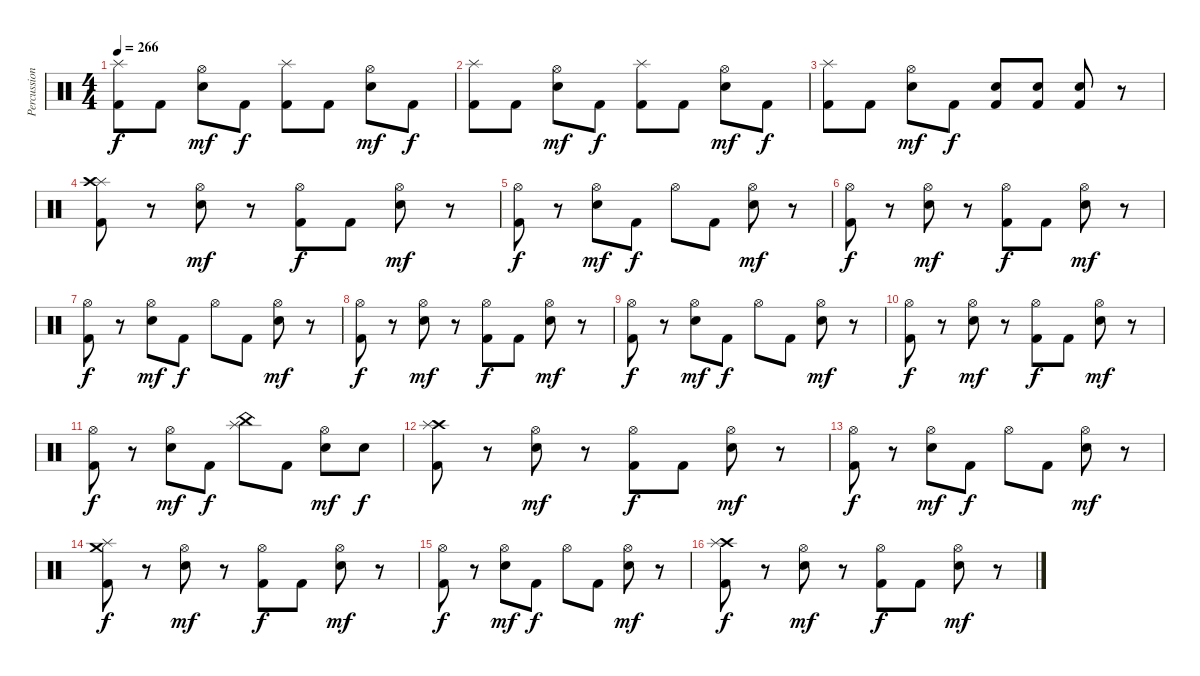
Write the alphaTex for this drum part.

\track ("Percussion" "Percussion") {instrument percussion}
\staff {score}
\articulation defaults
\ts (4 4)
\tempo 266
\clef neutral
\ks c
("Splash (hit)" "Kick (hit) 2").8{dy f} "Kick (hit) 2".8 ("Hi-Hat (open)" "Snare (hit) 2").8{dy mf} "Kick (hit) 2".8{dy f} ("Kick (hit) 2" "Splash (hit)").8 "Kick (hit) 2".8 ("Hi-Hat (open)" "Snare (hit) 2").8{dy mf} "Kick (hit) 2".8{dy f} |
("Splash (hit)" "Kick (hit) 2").8 "Kick (hit) 2".8 ("Hi-Hat (open)" "Snare (hit) 2").8{dy mf} "Kick (hit) 2".8{dy f} ("Kick (hit) 2" "Splash (hit)").8 "Kick (hit) 2".8 ("Hi-Hat (open)" "Snare (hit) 2").8{dy mf} "Kick (hit) 2".8{dy f} |
("Splash (hit)" "Kick (hit) 2").8 "Kick (hit) 2".8 ("Hi-Hat (open)" "Snare (hit) 2").8{dy mf} "Kick (hit) 2".8{dy f} ("Snare (hit) 2" "Kick (hit) 2").8 ("Snare (hit) 2" "Kick (hit) 2").8 ("Kick (hit) 2" "Snare (hit) 2").8 r.8 |
("Splash (hit)" "Crash high (hit)" "Kick (hit) 2").8 r.8 ("Snare (hit) 2" "Hi-Hat (open)").8{dy mf} r.8 ("Hi-Hat (open)" "Kick (hit) 2").8{dy f} "Kick (hit) 2".8 ("Hi-Hat (open)" "Snare (hit) 2").8{dy mf} r.8 |
("Kick (hit) 2" "Hi-Hat (open)").8{dy f} r.8 ("Snare (hit) 2" "Hi-Hat (open)").8{dy mf} "Kick (hit) 2".8{dy f} "Hi-Hat (open)".8 "Kick (hit) 2".8 ("Snare (hit) 2" "Hi-Hat (open)").8{dy mf} r.8 |
("Hi-Hat (open)" "Kick (hit) 2").8{dy f} r.8 ("Snare (hit) 2" "Hi-Hat (open)").8{dy mf} r.8 ("Hi-Hat (open)" "Kick (hit) 2").8{dy f} "Kick (hit) 2".8 ("Hi-Hat (open)" "Snare (hit) 2").8{dy mf} r.8 |
("Kick (hit) 2" "Hi-Hat (open)").8{dy f} r.8 ("Snare (hit) 2" "Hi-Hat (open)").8{dy mf} "Kick (hit) 2".8{dy f} "Hi-Hat (open)".8 "Kick (hit) 2".8 ("Snare (hit) 2" "Hi-Hat (open)").8{dy mf} r.8 |
("Hi-Hat (open)" "Kick (hit) 2").8{dy f} r.8 ("Snare (hit) 2" "Hi-Hat (open)").8{dy mf} r.8 ("Hi-Hat (open)" "Kick (hit) 2").8{dy f} "Kick (hit) 2".8 ("Hi-Hat (open)" "Snare (hit) 2").8{dy mf} r.8 |
("Kick (hit) 2" "Hi-Hat (open)").8{dy f} r.8 ("Snare (hit) 2" "Hi-Hat (open)").8{dy mf} "Kick (hit) 2".8{dy f} "Hi-Hat (open)".8 "Kick (hit) 2".8 ("Snare (hit) 2" "Hi-Hat (open)").8{dy mf} r.8 |
("Hi-Hat (open)" "Kick (hit) 2").8{dy f} r.8 ("Snare (hit) 2" "Hi-Hat (open)").8{dy mf} r.8 ("Hi-Hat (open)" "Kick (hit) 2").8{dy f} "Kick (hit) 2".8 ("Hi-Hat (open)" "Snare (hit) 2").8{dy mf} r.8 |
("Kick (hit) 2" "Hi-Hat (open)").8{dy f} r.8 ("Snare (hit) 2" "Hi-Hat (open)").8{dy mf} "Kick (hit) 2".8{dy f} ("Splash (hit)" "China (hit)").8 "Kick (hit) 2".8 ("Snare (hit) 2" "Hi-Hat (open)").8{dy mf} "Snare (hit) 2".8{dy f} |
("Crash high (hit)" "Splash (hit)" "Kick (hit) 2").8 r.8 ("Snare (hit) 2" "Hi-Hat (open)").8{dy mf} r.8 ("Kick (hit) 2" "Hi-Hat (open)").8{dy f} "Kick (hit) 2".8 ("Snare (hit) 2" "Hi-Hat (open)").8{dy mf} r.8 |
("Kick (hit) 2" "Hi-Hat (open)").8{dy f} r.8 ("Snare (hit) 2" "Hi-Hat (open)").8{dy mf} "Kick (hit) 2".8{dy f} "Hi-Hat (open)".8 "Kick (hit) 2".8 ("Snare (hit) 2" "Hi-Hat (open)").8{dy mf} r.8 |
("Crash medium (hit)" "Splash (hit)" "Kick (hit) 2").8{dy f} r.8 ("Snare (hit) 2" "Hi-Hat (open)").8{dy mf} r.8 ("Kick (hit) 2" "Hi-Hat (open)").8{dy f} "Kick (hit) 2".8 ("Snare (hit) 2" "Hi-Hat (open)").8{dy mf} r.8 |
("Kick (hit) 2" "Hi-Hat (open)").8{dy f} r.8 ("Snare (hit) 2" "Hi-Hat (open)").8{dy mf} "Kick (hit) 2".8{dy f} "Hi-Hat (open)".8 "Kick (hit) 2".8 ("Snare (hit) 2" "Hi-Hat (open)").8{dy mf} r.8 |
("Crash high (hit)" "Splash (hit)" "Kick (hit) 2").8{dy f} r.8 ("Snare (hit) 2" "Hi-Hat (open)").8{dy mf} r.8 ("Kick (hit) 2" "Hi-Hat (open)").8{dy f} "Kick (hit) 2".8 ("Snare (hit) 2" "Hi-Hat (open)").8{dy mf} r.8
